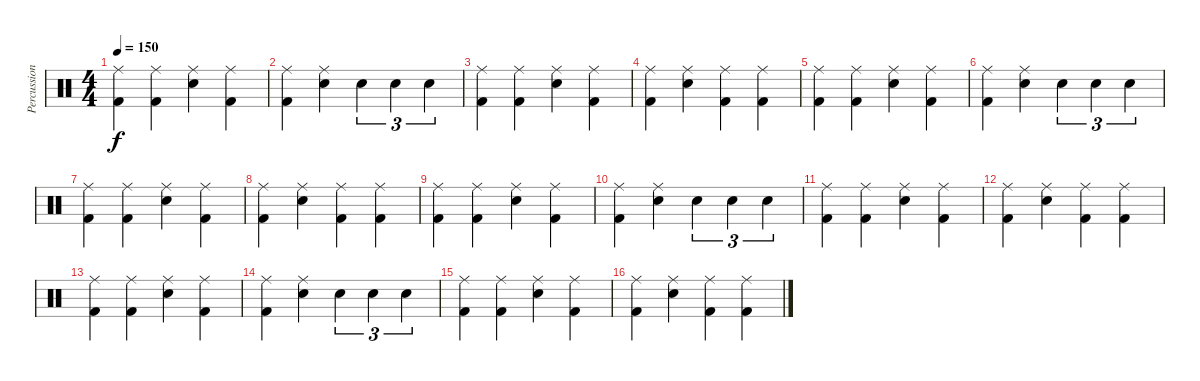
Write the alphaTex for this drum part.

\track ("Percussions" "Percussion") {instrument percussion}
\staff {score}
\articulation defaults
\ts (4 4)
\tempo 150
\clef neutral
\ks c
("Ride (middle)" "Kick (hit) 2").4{dy f} ("Ride (middle)" "Kick (hit) 2").4 ("Ride (middle)" "Electric Snare (hit)").4 ("Ride (middle)" "Kick (hit) 2").4 |
("Ride (middle)" "Kick (hit) 2").4 ("Ride (middle)" "Electric Snare (hit)").4 "Electric Snare (hit)".4{tu (3 2)} "Electric Snare (hit)".4{tu (3 2)} "Electric Snare (hit)".4{tu (3 2)} |
("Ride (middle)" "Kick (hit) 2").4 ("Ride (middle)" "Kick (hit) 2").4 ("Ride (middle)" "Electric Snare (hit)").4 ("Ride (middle)" "Kick (hit) 2").4 |
("Ride (middle)" "Kick (hit) 2").4 ("Ride (middle)" "Electric Snare (hit)").4 ("Ride (middle)" "Kick (hit) 2").4 ("Ride (middle)" "Kick (hit) 2").4 |
("Ride (middle)" "Kick (hit) 2").4 ("Ride (middle)" "Kick (hit) 2").4 ("Ride (middle)" "Electric Snare (hit)").4 ("Ride (middle)" "Kick (hit) 2").4 |
("Ride (middle)" "Kick (hit) 2").4 ("Ride (middle)" "Electric Snare (hit)").4 "Electric Snare (hit)".4{tu (3 2)} "Electric Snare (hit)".4{tu (3 2)} "Electric Snare (hit)".4{tu (3 2)} |
("Ride (middle)" "Kick (hit) 2").4 ("Ride (middle)" "Kick (hit) 2").4 ("Ride (middle)" "Electric Snare (hit)").4 ("Ride (middle)" "Kick (hit) 2").4 |
("Ride (middle)" "Kick (hit) 2").4 ("Ride (middle)" "Electric Snare (hit)").4 ("Ride (middle)" "Kick (hit) 2").4 ("Ride (middle)" "Kick (hit) 2").4 |
("Ride (middle)" "Kick (hit) 2").4 ("Ride (middle)" "Kick (hit) 2").4 ("Ride (middle)" "Electric Snare (hit)").4 ("Ride (middle)" "Kick (hit) 2").4 |
("Ride (middle)" "Kick (hit) 2").4 ("Ride (middle)" "Electric Snare (hit)").4 "Electric Snare (hit)".4{tu (3 2)} "Electric Snare (hit)".4{tu (3 2)} "Electric Snare (hit)".4{tu (3 2)} |
("Ride (middle)" "Kick (hit) 2").4 ("Ride (middle)" "Kick (hit) 2").4 ("Ride (middle)" "Electric Snare (hit)").4 ("Ride (middle)" "Kick (hit) 2").4 |
("Ride (middle)" "Kick (hit) 2").4 ("Ride (middle)" "Electric Snare (hit)").4 ("Ride (middle)" "Kick (hit) 2").4 ("Ride (middle)" "Kick (hit) 2").4 |
("Ride (middle)" "Kick (hit) 2").4 ("Ride (middle)" "Kick (hit) 2").4 ("Ride (middle)" "Electric Snare (hit)").4 ("Ride (middle)" "Kick (hit) 2").4 |
("Ride (middle)" "Kick (hit) 2").4 ("Ride (middle)" "Electric Snare (hit)").4 "Electric Snare (hit)".4{tu (3 2)} "Electric Snare (hit)".4{tu (3 2)} "Electric Snare (hit)".4{tu (3 2)} |
("Ride (middle)" "Kick (hit) 2").4 ("Ride (middle)" "Kick (hit) 2").4 ("Ride (middle)" "Electric Snare (hit)").4 ("Ride (middle)" "Kick (hit) 2").4 |
("Ride (middle)" "Kick (hit) 2").4 ("Ride (middle)" "Electric Snare (hit)").4 ("Ride (middle)" "Kick (hit) 2").4 ("Ride (middle)" "Kick (hit) 2").4
